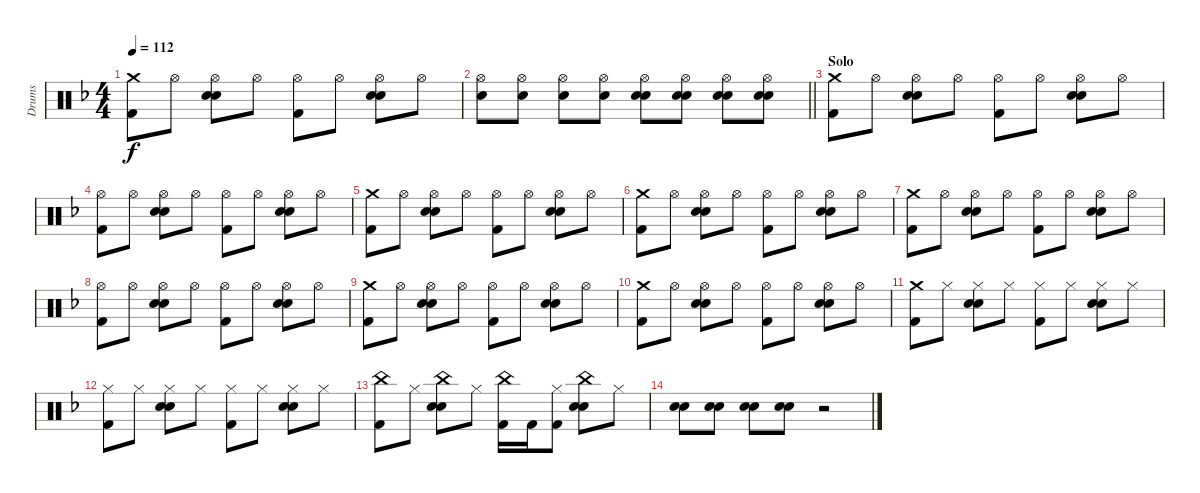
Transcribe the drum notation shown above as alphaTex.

\track ("Drums" "Drums") {instrument percussion}
\staff {score}
\articulation defaults
\ts (4 4)
\tempo 112
\clef neutral
\ks dminor
("Kick (hit) 2" "Crash medium (hit)").8{dy f} "Hi-Hat (open)".8 ("Electric Snare (hit)" "Snare (hit) 2" "Hi-Hat (open)").8 "Hi-Hat (open)".8 ("Kick (hit) 2" "Hi-Hat (open)").8 "Hi-Hat (open)".8 ("Electric Snare (hit)" "Snare (hit) 2" "Hi-Hat (open)").8 "Hi-Hat (open)".8 |
\barLineRight lightlight
("Snare (hit) 2" "Hi-Hat (open)").8 ("Snare (hit) 2" "Hi-Hat (open)").8 ("Snare (hit) 2" "Hi-Hat (open)").8 ("Snare (hit) 2" "Hi-Hat (open)").8 ("Electric Snare (hit)" "Snare (hit) 2" "Hi-Hat (open)").8 ("Electric Snare (hit)" "Snare (hit) 2" "Hi-Hat (open)").8 ("Electric Snare (hit)" "Snare (hit) 2" "Hi-Hat (open)").8 ("Electric Snare (hit)" "Snare (hit) 2" "Hi-Hat (open)").8 |
\section ("" "Solo")
("Kick (hit) 2" "Crash medium (hit)").8 "Hi-Hat (open)".8 ("Electric Snare (hit)" "Snare (hit) 2" "Hi-Hat (open)").8 "Hi-Hat (open)".8 ("Kick (hit) 2" "Hi-Hat (open)").8 "Hi-Hat (open)".8 ("Electric Snare (hit)" "Snare (hit) 2" "Hi-Hat (open)").8 "Hi-Hat (open)".8 |
("Kick (hit) 2" "Hi-Hat (open)").8 "Hi-Hat (open)".8 ("Electric Snare (hit)" "Snare (hit) 2" "Hi-Hat (open)").8 "Hi-Hat (open)".8 ("Kick (hit) 2" "Hi-Hat (open)").8 "Hi-Hat (open)".8 ("Electric Snare (hit)" "Snare (hit) 2" "Hi-Hat (open)").8 "Hi-Hat (open)".8 |
("Kick (hit) 2" "Crash medium (hit)").8 "Hi-Hat (open)".8 ("Electric Snare (hit)" "Snare (hit) 2" "Hi-Hat (open)").8 "Hi-Hat (open)".8 ("Kick (hit) 2" "Hi-Hat (open)").8 "Hi-Hat (open)".8 ("Electric Snare (hit)" "Snare (hit) 2" "Hi-Hat (open)").8 "Hi-Hat (open)".8 |
("Kick (hit) 2" "Crash medium (hit)").8 "Hi-Hat (open)".8 ("Electric Snare (hit)" "Snare (hit) 2" "Hi-Hat (open)").8 "Hi-Hat (open)".8 ("Kick (hit) 2" "Hi-Hat (open)").8 "Hi-Hat (open)".8 ("Electric Snare (hit)" "Snare (hit) 2" "Hi-Hat (open)").8 "Hi-Hat (open)".8 |
("Kick (hit) 2" "Crash medium (hit)").8 "Hi-Hat (open)".8 ("Electric Snare (hit)" "Snare (hit) 2" "Hi-Hat (open)").8 "Hi-Hat (open)".8 ("Kick (hit) 2" "Hi-Hat (open)").8 "Hi-Hat (open)".8 ("Electric Snare (hit)" "Snare (hit) 2" "Hi-Hat (open)").8 "Hi-Hat (open)".8 |
("Kick (hit) 2" "Hi-Hat (open)").8 "Hi-Hat (open)".8 ("Electric Snare (hit)" "Snare (hit) 2" "Hi-Hat (open)").8 "Hi-Hat (open)".8 ("Kick (hit) 2" "Hi-Hat (open)").8 "Hi-Hat (open)".8 ("Electric Snare (hit)" "Snare (hit) 2" "Hi-Hat (open)").8 "Hi-Hat (open)".8 |
("Kick (hit) 2" "Crash medium (hit)").8 "Hi-Hat (open)".8 ("Electric Snare (hit)" "Snare (hit) 2" "Hi-Hat (open)").8 "Hi-Hat (open)".8 ("Kick (hit) 2" "Hi-Hat (open)").8 "Hi-Hat (open)".8 ("Electric Snare (hit)" "Snare (hit) 2" "Hi-Hat (open)").8 "Hi-Hat (open)".8 |
("Kick (hit) 2" "Crash medium (hit)").8 "Hi-Hat (open)".8 ("Electric Snare (hit)" "Snare (hit) 2" "Hi-Hat (open)").8 "Hi-Hat (open)".8 ("Kick (hit) 2" "Hi-Hat (open)").8 "Hi-Hat (open)".8 ("Electric Snare (hit)" "Snare (hit) 2" "Hi-Hat (open)").8 "Hi-Hat (open)".8 |
("Kick (hit) 2" "Crash medium (hit)").8 "Hi-Hat (closed)".8 ("Electric Snare (hit)" "Snare (hit) 2" "Hi-Hat (closed)").8 "Hi-Hat (closed)".8 ("Kick (hit) 2" "Hi-Hat (closed)").8 "Hi-Hat (closed)".8 ("Electric Snare (hit)" "Snare (hit) 2" "Hi-Hat (closed)").8 "Hi-Hat (closed)".8 |
("Kick (hit) 2" "Hi-Hat (closed)").8 "Hi-Hat (closed)".8 ("Electric Snare (hit)" "Snare (hit) 2" "Hi-Hat (closed)").8 "Hi-Hat (closed)".8 ("Kick (hit) 2" "Hi-Hat (closed)").8 "Hi-Hat (closed)".8 ("Electric Snare (hit)" "Snare (hit) 2" "Hi-Hat (closed)").8 "Hi-Hat (closed)".8 |
("Kick (hit) 2" "China (hit)").8 "Hi-Hat (closed)".8 ("Electric Snare (hit)" "Snare (hit) 2" "China (hit)").8 "Hi-Hat (closed)".8 ("Kick (hit) 2" "China (hit)").16 "Kick (hit) 2".16 ("Kick (hit) 2" "Hi-Hat (closed)").8 ("Electric Snare (hit)" "Snare (hit) 2" "China (hit)").8 "Hi-Hat (closed)".8 |
("Electric Snare (hit)" "Snare (hit) 2").8 ("Electric Snare (hit)" "Snare (hit) 2").8 ("Electric Snare (hit)" "Snare (hit) 2").8 ("Electric Snare (hit)" "Snare (hit) 2").8 r.2
